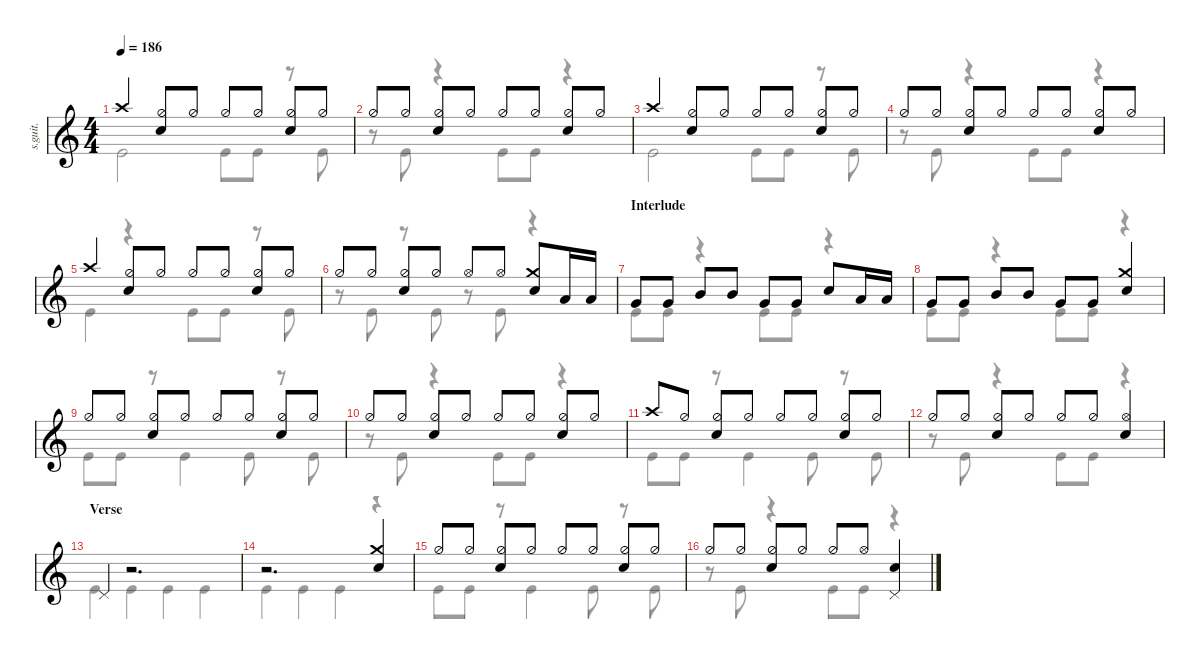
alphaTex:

\defaultSystemsLayout 4
\hideDynamics
\bracketExtendMode nobrackets
\track ("Tre Cool" "s.guit.") {instrument percussion}
\staff {score}
\articulation defaults
\voice
\ts (4 4)
\tempo 186
\clef g2
\ks c "Crash high (hit)".4{dy f}
("Hi-Hat (half)" "Snare (hit) 2").8 "Hi-Hat (half)".8 "Hi-Hat (half)".8 "Hi-Hat (half)".8 ("Hi-Hat (half)" "Snare (hit) 2").8 "Hi-Hat (half)".8 |
"Hi-Hat (half)".8 "Hi-Hat (half)".8 ("Hi-Hat (half)" "Snare (hit) 2").8 "Hi-Hat (half)".8 "Hi-Hat (half)".8 "Hi-Hat (half)".8 ("Hi-Hat (half)" "Snare (hit) 2").8 "Hi-Hat (half)".8 |
"Crash high (hit)".4 ("Hi-Hat (half)" "Snare (hit) 2").8 "Hi-Hat (half)".8 "Hi-Hat (half)".8 "Hi-Hat (half)".8 ("Hi-Hat (half)" "Snare (hit) 2").8 "Hi-Hat (half)".8 |
"Hi-Hat (half)".8 "Hi-Hat (half)".8 ("Hi-Hat (half)" "Snare (hit) 2").8 "Hi-Hat (half)".8 "Hi-Hat (half)".8 "Hi-Hat (half)".8 ("Hi-Hat (half)" "Snare (hit) 2").8 "Hi-Hat (half)".8 |
"Crash high (hit)".4 ("Snare (hit) 2" "Hi-Hat (half)").8 "Hi-Hat (half)".8 "Hi-Hat (half)".8 "Hi-Hat (half)".8 ("Hi-Hat (half)" "Snare (hit) 2").8 "Hi-Hat (half)".8 |
"Hi-Hat (half)".8 "Hi-Hat (half)".8 ("Hi-Hat (half)" "Snare (hit) 2").8 "Hi-Hat (half)".8 "Hi-Hat (open)".8 "Hi-Hat (open)".8 ("Crash medium (hit)" "Snare (hit) 2").8 "Low Tom (hit)".16 "Low Tom (hit)".16 |
\section ("" "Interlude")
"Very Low Tom (hit)".8 "Very Low Tom (hit)".8 "Mid Tom (hit)".8 "Mid Tom (hit)".8 "Very Low Tom (hit)".8 "Very Low Tom (hit)".8 "Snare (hit) 2".8 "Low Tom (hit)".16 "Low Tom (hit)".16 |
"Very Low Tom (hit)".8 "Very Low Tom (hit)".8 "Mid Tom (hit)".8 "Mid Tom (hit)".8 "Very Low Tom (hit)".8 "Very Low Tom (hit)".8 ("Snare (hit) 2" "Crash medium (hit)").4 |
"Hi-Hat (half)".8 "Hi-Hat (half)".8 ("Hi-Hat (half)" "Snare (hit) 2").8 "Hi-Hat (half)".8 "Hi-Hat (half)".8 "Hi-Hat (half)".8 ("Hi-Hat (half)" "Snare (hit) 2").8 "Hi-Hat (half)".8 |
"Hi-Hat (half)".8 "Hi-Hat (half)".8 ("Hi-Hat (half)" "Snare (hit) 2").8 "Hi-Hat (half)".8 "Hi-Hat (half)".8 "Hi-Hat (half)".8 ("Hi-Hat (half)" "Snare (hit) 2").8 "Hi-Hat (half)".8 |
"Crash high (hit)".8 "Hi-Hat (half)".8 ("Hi-Hat (half)" "Snare (hit) 2").8 "Hi-Hat (half)".8 "Hi-Hat (half)".8 "Hi-Hat (half)".8 ("Hi-Hat (half)" "Snare (hit) 2").8 "Hi-Hat (half)".8 |
"Hi-Hat (half)".8 "Hi-Hat (half)".8 ("Hi-Hat (half)" "Snare (hit) 2").8 "Hi-Hat (half)".8 "Hi-Hat (half)".8 "Hi-Hat (half)".8 ("Hi-Hat (open)" "Snare (hit) 2").4 |
\section ("" "Verse")
"Pedal Hi-Hat (hit)".4 r.2{d} |
r.2{d} ("Snare (hit) 2" "Crash medium (hit)").4 |
"Hi-Hat (half)".8 "Hi-Hat (half)".8 ("Hi-Hat (half)" "Snare (hit) 2").8 "Hi-Hat (half)".8 "Hi-Hat (half)".8 "Hi-Hat (half)".8 ("Hi-Hat (half)" "Snare (hit) 2").8 "Hi-Hat (half)".8 |
"Hi-Hat (half)".8 "Hi-Hat (half)".8 ("Hi-Hat (half)" "Snare (hit) 2").8 "Hi-Hat (half)".8 "Hi-Hat (half)".8 "Hi-Hat (open)".8 ("Snare (hit) 2" "Pedal Hi-Hat (hit)").4
\voice
\clef g2
\ottava regular
\simile none
\ks c "Kick (hit)".2{dy f} "Kick (hit)".8 "Kick (hit)".8
r.8 "Kick (hit)".8 |
r.8 "Kick (hit)".8 r.4 "Kick (hit)".8 "Kick (hit)".8 r.4 |
"Kick (hit)".2 "Kick (hit)".8 "Kick (hit)".8 r.8 "Kick (hit)".8 |
r.8 "Kick (hit)".8 r.4 "Kick (hit)".8 "Kick (hit)".8 r.4 |
"Kick (hit)".4 r.4 "Kick (hit)".8 "Kick (hit)".8 r.8 "Kick (hit)".8 |
r.8 "Kick (hit)".8 r.8 "Kick (hit)".8 r.8 "Kick (hit)".8 r.4 |
"Kick (hit)".8 "Kick (hit)".8 r.4 "Kick (hit)".8 "Kick (hit)".8 r.4 |
"Kick (hit)".8 "Kick (hit)".8 r.4 "Kick (hit)".8 "Kick (hit)".8 r.4 |
"Kick (hit)".8 "Kick (hit)".8 r.8 "Kick (hit)".4 "Kick (hit)".8 r.8 "Kick (hit)".8 |
r.8 "Kick (hit)".8 r.4 "Kick (hit)".8 "Kick (hit)".8 r.4 |
"Kick (hit)".8 "Kick (hit)".8 r.8 "Kick (hit)".4 "Kick (hit)".8 r.8 "Kick (hit)".8 |
r.8 "Kick (hit)".8 r.4 "Kick (hit)".8 "Kick (hit)".8 r.4 |
"Kick (hit)".4 "Kick (hit)".4 "Kick (hit)".4 "Kick (hit)".4 |
"Kick (hit)".4 "Kick (hit)".4 "Kick (hit)".4 r.4 |
"Kick (hit)".8 "Kick (hit)".8 r.8 "Kick (hit)".4 "Kick (hit)".8 r.8 "Kick (hit)".8 |
r.8 "Kick (hit)".8 r.4 "Kick (hit)".8 "Kick (hit)".8 r.4
